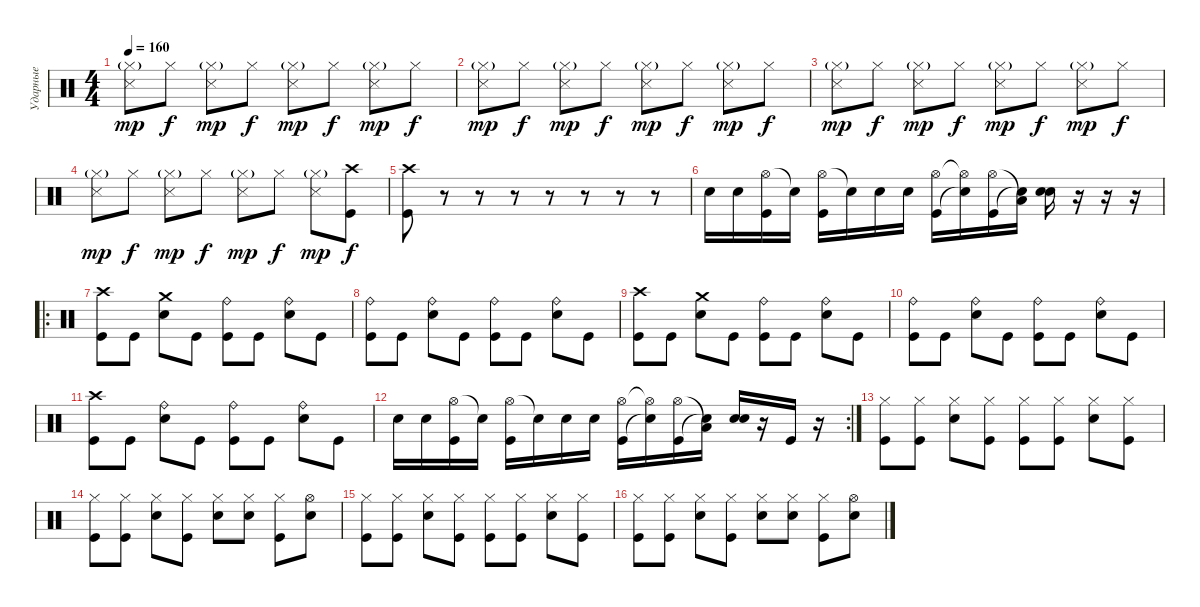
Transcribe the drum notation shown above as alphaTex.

\track ("Ударные" "Ударные") {instrument percussion}
\staff {score}
\articulation defaults
\ts (4 4)
\tempo 160
\clef neutral
\ks c
("Hi-Hat (closed)"{g} "Snare (side stick) 3").8{dy mp} "Hi-Hat (closed)".8{dy f} ("Hi-Hat (closed)"{g} "Snare (side stick) 3").8{dy mp} "Hi-Hat (closed)".8{dy f} ("Hi-Hat (closed)"{g} "Snare (side stick) 3").8{dy mp} "Hi-Hat (closed)".8{dy f} ("Hi-Hat (closed)"{g} "Snare (side stick) 3").8{dy mp} "Hi-Hat (closed)".8{dy f} |
("Hi-Hat (closed)"{g} "Snare (side stick) 3").8{dy mp} "Hi-Hat (closed)".8{dy f} ("Hi-Hat (closed)"{g} "Snare (side stick) 3").8{dy mp} "Hi-Hat (closed)".8{dy f} ("Hi-Hat (closed)"{g} "Snare (side stick) 3").8{dy mp} "Hi-Hat (closed)".8{dy f} ("Hi-Hat (closed)"{g} "Snare (side stick) 3").8{dy mp} "Hi-Hat (closed)".8{dy f} |
("Hi-Hat (closed)"{g} "Snare (side stick) 3").8{dy mp} "Hi-Hat (closed)".8{dy f} ("Hi-Hat (closed)"{g} "Snare (side stick) 3").8{dy mp} "Hi-Hat (closed)".8{dy f} ("Hi-Hat (closed)"{g} "Snare (side stick) 3").8{dy mp} "Hi-Hat (closed)".8{dy f} ("Hi-Hat (closed)"{g} "Snare (side stick) 3").8{dy mp} "Hi-Hat (closed)".8{dy f} |
("Hi-Hat (closed)"{g} "Snare (side stick) 3").8{dy mp} "Hi-Hat (closed)".8{dy f} ("Hi-Hat (closed)"{g} "Snare (side stick) 3").8{dy mp} "Hi-Hat (closed)".8{dy f} ("Hi-Hat (closed)"{g} "Snare (side stick) 3").8{dy mp} "Hi-Hat (closed)".8{dy f} ("Hi-Hat (closed)"{g} "Snare (side stick) 3").8{dy mp} ("Crash high (hit)" "Kick (hit)").8{dy f} |
("Crash high (hit)" "Kick (hit)").8 r.8 r.8 r.8 r.8 r.8 r.8 r.8 |
"Electric Snare (hit)".16 "Electric Snare (hit)".16 ("Hi-Hat (open)" "Kick (hit)").16 "Snare (hit)"{t}.16 ("Hi-Hat (open)" "Kick (hit)").16 "Snare (hit)"{t}.16 "Electric Snare (hit)".16 "Electric Snare (hit)".16 ("Hi-Hat (open)" "Kick (hit)").16 ("Hi-Hat (open)"{t} "Snare (hit)"{t}).16 ("Hi-Hat (open)" "Kick (hit)").16 ("Low Tom (hit)"{t} "Snare (hit)"{t}).16 ("Electric Snare (hit)" "Electric Snare (hit)").16 r.16 r.16 r.16 |
\ro
("Crash high (hit)" "Kick (hit)").8 "Kick (hit)".8 ("Crash medium (hit)" "Electric Snare (hit)").8 "Kick (hit)".8 ("Ride (bell)" "Kick (hit)").8 "Kick (hit)".8 ("Ride (bell)" "Electric Snare (hit)").8 "Kick (hit)".8 |
("Ride (bell)" "Kick (hit)").8 "Kick (hit)".8 ("Ride (bell)" "Electric Snare (hit)").8 "Kick (hit)".8 ("Ride (bell)" "Kick (hit)").8 "Kick (hit)".8 ("Ride (bell)" "Electric Snare (hit)").8 "Kick (hit)".8 |
("Crash high (hit)" "Kick (hit)").8 "Kick (hit)".8 ("Crash medium (hit)" "Electric Snare (hit)").8 "Kick (hit)".8 ("Ride (bell)" "Kick (hit)").8 "Kick (hit)".8 ("Ride (bell)" "Electric Snare (hit)").8 "Kick (hit)".8 |
("Ride (bell)" "Kick (hit)").8 "Kick (hit)".8 ("Ride (bell)" "Electric Snare (hit)").8 "Kick (hit)".8 ("Ride (bell)" "Kick (hit)").8 "Kick (hit)".8 ("Ride (bell)" "Electric Snare (hit)").8 "Kick (hit)".8 |
("Crash high (hit)" "Kick (hit)").8 "Kick (hit)".8 ("Ride (bell)" "Electric Snare (hit)").8 "Kick (hit)".8 ("Ride (bell)" "Kick (hit)").8 "Kick (hit)".8 ("Ride (bell)" "Electric Snare (hit)").8 "Kick (hit)".8 |
\rc 2 "Electric Snare (hit)".16 "Electric Snare (hit)".16
("Hi-Hat (open)" "Kick (hit)").16 "Snare (hit)"{t}.16 ("Hi-Hat (open)" "Kick (hit)").16 "Snare (hit)"{t}.16 "Electric Snare (hit)".16 "Electric Snare (hit)".16 ("Hi-Hat (open)" "Kick (hit)").16 ("Hi-Hat (open)"{t} "Snare (hit)"{t}).16 ("Hi-Hat (open)" "Kick (hit)").16 ("Low Tom (hit)"{t} "Snare (hit)"{t}).16 ("Electric Snare (hit)" "Electric Snare (hit)").16 r.16 "Kick (hit)".16 r.16 |
("Hi-Hat (closed)" "Kick (hit)").8 ("Hi-Hat (closed)" "Kick (hit)").8 ("Hi-Hat (closed)" "Electric Snare (hit)").8 ("Hi-Hat (closed)" "Kick (hit)").8 ("Hi-Hat (closed)" "Kick (hit)").8 ("Hi-Hat (closed)" "Kick (hit)").8 ("Hi-Hat (closed)" "Electric Snare (hit)").8 ("Hi-Hat (closed)" "Kick (hit)").8 |
("Hi-Hat (closed)" "Kick (hit)").8 ("Hi-Hat (closed)" "Kick (hit)").8 ("Hi-Hat (closed)" "Electric Snare (hit)").8 ("Hi-Hat (closed)" "Kick (hit)").8 ("Hi-Hat (closed)" "Electric Snare (hit)").8 ("Hi-Hat (closed)" "Electric Snare (hit)").8 ("Hi-Hat (closed)" "Kick (hit)").8 ("Hi-Hat (open)" "Electric Snare (hit)").8 |
("Hi-Hat (closed)" "Kick (hit)").8 ("Hi-Hat (closed)" "Kick (hit)").8 ("Hi-Hat (closed)" "Electric Snare (hit)").8 ("Hi-Hat (closed)" "Kick (hit)").8 ("Hi-Hat (closed)" "Kick (hit)").8 ("Hi-Hat (closed)" "Kick (hit)").8 ("Hi-Hat (closed)" "Electric Snare (hit)").8 ("Hi-Hat (closed)" "Kick (hit)").8 |
("Hi-Hat (closed)" "Kick (hit)").8 ("Hi-Hat (closed)" "Kick (hit)").8 ("Hi-Hat (closed)" "Electric Snare (hit)").8 ("Hi-Hat (closed)" "Kick (hit)").8 ("Hi-Hat (closed)" "Electric Snare (hit)").8 ("Hi-Hat (closed)" "Electric Snare (hit)").8 ("Hi-Hat (closed)" "Kick (hit)").8 ("Hi-Hat (open)" "Electric Snare (hit)").8
